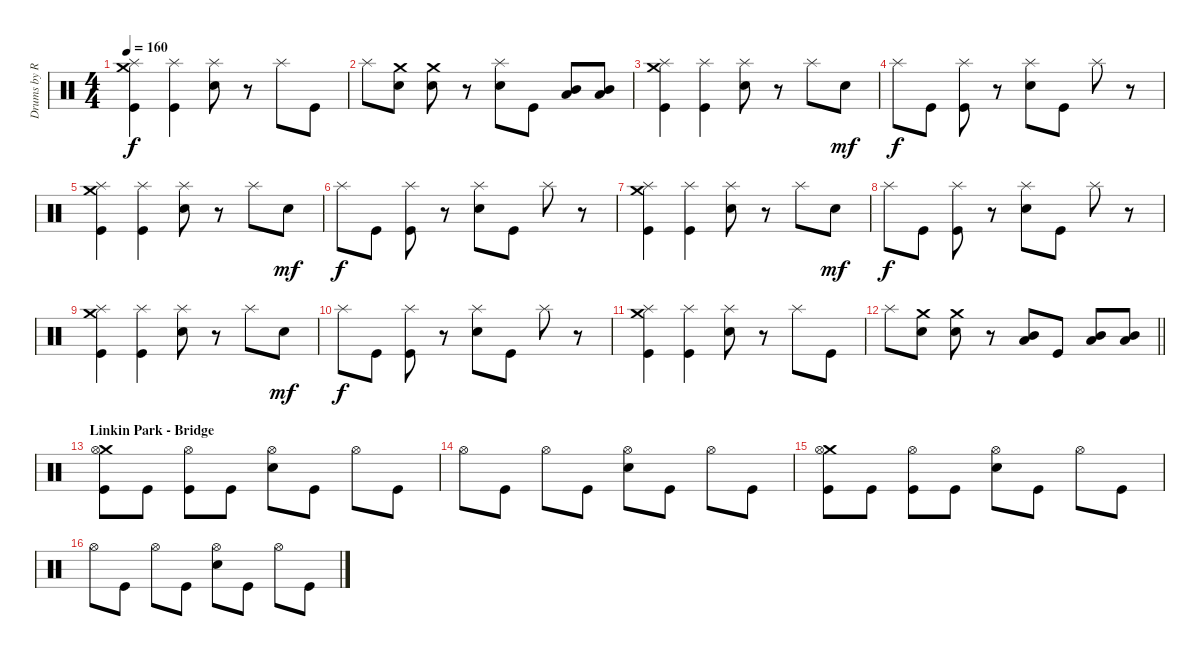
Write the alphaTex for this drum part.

\track ("Drums by Rob Bourdon" "Drums by R") {instrument percussion}
\staff {score}
\articulation defaults
\ts (4 4)
\tempo 160
\clef neutral
\ks c
("Crash medium (hit)" "Splash (hit)" "Kick (hit)").4{dy f} ("Splash (hit)" "Kick (hit)").4 ("Splash (hit)" "Snare (hit) 2").8 r.8 "Splash (hit)".8 "Kick (hit)".8 |
"Splash (hit)".8 ("Crash medium (hit)" "Snare (hit) 2").8 ("Crash medium (hit)" "Snare (hit) 2").8 r.8 ("Splash (hit)" "Snare (hit) 2").8 "Kick (hit)".8 ("Mid Tom (hit)" "Low Tom (hit)").8 ("Mid Tom (hit)" "Low Tom (hit)").8 |
("Crash medium (hit)" "Splash (hit)" "Kick (hit)").4 ("Splash (hit)" "Kick (hit)").4 ("Splash (hit)" "Snare (hit) 2").8 r.8 "Splash (hit)".8 "Snare (hit) 2".8{dy mf} |
"Splash (hit)".8{dy f} "Kick (hit)".8 ("Splash (hit)" "Kick (hit)").8 r.8 ("Splash (hit)" "Snare (hit) 2").8 "Kick (hit)".8 "Splash (hit)".8 r.8 |
("Crash medium (hit)" "Splash (hit)" "Kick (hit)").4 ("Splash (hit)" "Kick (hit)").4 ("Splash (hit)" "Snare (hit) 2").8 r.8 "Splash (hit)".8 "Snare (hit) 2".8{dy mf} |
"Splash (hit)".8{dy f} "Kick (hit)".8 ("Splash (hit)" "Kick (hit)").8 r.8 ("Splash (hit)" "Snare (hit) 2").8 "Kick (hit)".8 "Splash (hit)".8 r.8 |
("Crash medium (hit)" "Splash (hit)" "Kick (hit)").4 ("Splash (hit)" "Kick (hit)").4 ("Splash (hit)" "Snare (hit) 2").8 r.8 "Splash (hit)".8 "Snare (hit) 2".8{dy mf} |
"Splash (hit)".8{dy f} "Kick (hit)".8 ("Splash (hit)" "Kick (hit)").8 r.8 ("Splash (hit)" "Snare (hit) 2").8 "Kick (hit)".8 "Splash (hit)".8 r.8 |
("Crash medium (hit)" "Splash (hit)" "Kick (hit)").4 ("Splash (hit)" "Kick (hit)").4 ("Splash (hit)" "Snare (hit) 2").8 r.8 "Splash (hit)".8 "Snare (hit) 2".8{dy mf} |
"Splash (hit)".8{dy f} "Kick (hit)".8 ("Splash (hit)" "Kick (hit)").8 r.8 ("Splash (hit)" "Snare (hit) 2").8 "Kick (hit)".8 "Splash (hit)".8 r.8 |
("Crash medium (hit)" "Splash (hit)" "Kick (hit)").4 ("Splash (hit)" "Kick (hit)").4 ("Splash (hit)" "Snare (hit) 2").8 r.8 "Splash (hit)".8 "Kick (hit)".8 |
\barLineRight lightlight "Splash (hit)".8
("Crash medium (hit)" "Snare (hit)").8 ("Crash medium (hit)" "Snare (hit)").8 r.8 ("Mid Tom (hit)" "Low Tom (hit)").8 "Kick (hit)".8 ("Mid Tom (hit)" "Low Tom (hit)").8 ("Mid Tom (hit)" "Low Tom (hit)").8 |
\section ("" "Linkin Park - Bridge")
("Crash medium (hit)" "Hi-Hat (open)" "Kick (hit)").8 "Kick (hit)".8 ("Hi-Hat (open)" "Kick (hit)").8 "Kick (hit)".8 ("Hi-Hat (open)" "Snare (hit) 2").8 "Kick (hit)".8 "Hi-Hat (open)".8 "Kick (hit)".8 |
"Hi-Hat (open)".8 "Kick (hit)".8 "Hi-Hat (open)".8 "Kick (hit)".8 ("Hi-Hat (open)" "Snare (hit) 2").8 "Kick (hit)".8 "Hi-Hat (open)".8 "Kick (hit)".8 |
("Crash medium (hit)" "Hi-Hat (open)" "Kick (hit)").8 "Kick (hit)".8 ("Hi-Hat (open)" "Kick (hit)").8 "Kick (hit)".8 ("Hi-Hat (open)" "Snare (hit) 2").8 "Kick (hit)".8 "Hi-Hat (open)".8 "Kick (hit)".8 |
"Hi-Hat (open)".8 "Kick (hit)".8 "Hi-Hat (open)".8 "Kick (hit)".8 ("Hi-Hat (open)" "Snare (hit) 2").8 "Kick (hit)".8 "Hi-Hat (open)".8 "Kick (hit)".8
